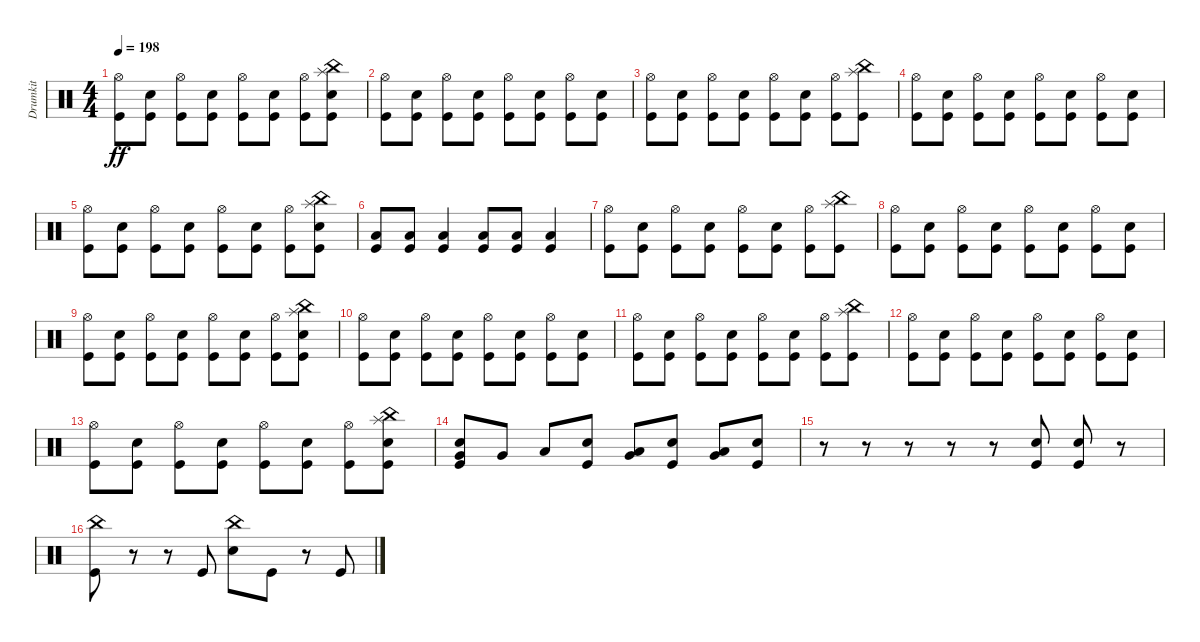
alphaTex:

\track ("Drumkit" "Drumkit") {instrument percussion}
\staff {score}
\articulation defaults
\ts (4 4)
\tempo 198
\clef neutral
\ks c
("Hi-Hat (open)" "Kick (hit)").8{dy ff} ("Snare (hit) 2" "Kick (hit)").8 ("Hi-Hat (open)" "Kick (hit)").8 ("Snare (hit) 2" "Kick (hit)").8 ("Hi-Hat (open)" "Kick (hit)").8 ("Snare (hit) 2" "Kick (hit)").8 ("Hi-Hat (open)" "Kick (hit)").8 ("Snare (hit) 2" "Kick (hit)" "China (hit)" "Splash (hit)").8 |
("Hi-Hat (open)" "Kick (hit)").8 ("Snare (hit) 2" "Kick (hit)").8 ("Hi-Hat (open)" "Kick (hit)").8 ("Snare (hit) 2" "Kick (hit)").8 ("Hi-Hat (open)" "Kick (hit)").8 ("Snare (hit) 2" "Kick (hit)").8 ("Hi-Hat (open)" "Kick (hit)").8 ("Snare (hit) 2" "Kick (hit)").8 |
("Hi-Hat (open)" "Kick (hit)").8 ("Snare (hit) 2" "Kick (hit)").8 ("Hi-Hat (open)" "Kick (hit)").8 ("Snare (hit) 2" "Kick (hit)").8 ("Hi-Hat (open)" "Kick (hit)").8 ("Snare (hit) 2" "Kick (hit)").8 ("Hi-Hat (open)" "Kick (hit)").8 ("Kick (hit)" "China (hit)" "Splash (hit)").8 |
("Hi-Hat (open)" "Kick (hit)").8 ("Snare (hit) 2" "Kick (hit)").8 ("Hi-Hat (open)" "Kick (hit)").8 ("Snare (hit) 2" "Kick (hit)").8 ("Hi-Hat (open)" "Kick (hit)").8 ("Snare (hit) 2" "Kick (hit)").8 ("Hi-Hat (open)" "Kick (hit)").8 ("Snare (hit) 2" "Kick (hit)").8 |
("Hi-Hat (open)" "Kick (hit)").8 ("Snare (hit) 2" "Kick (hit)").8 ("Hi-Hat (open)" "Kick (hit)").8 ("Snare (hit) 2" "Kick (hit)").8 ("Hi-Hat (open)" "Kick (hit)").8 ("Snare (hit) 2" "Kick (hit)").8 ("Hi-Hat (open)" "Kick (hit)").8 ("Snare (hit) 2" "Kick (hit)" "China (hit)" "Splash (hit)").8 |
("Low Floor Tom (hit)" "Kick (hit)").8 ("Low Floor Tom (hit)" "Kick (hit)").8 ("Kick (hit)" "Low Floor Tom (hit)").4 ("Low Floor Tom (hit)" "Kick (hit)").8 ("Kick (hit)" "Low Floor Tom (hit)").8 ("Low Floor Tom (hit)" "Kick (hit)").4 |
("Hi-Hat (open)" "Kick (hit)").8 ("Snare (hit) 2" "Kick (hit)").8 ("Hi-Hat (open)" "Kick (hit)").8 ("Snare (hit) 2" "Kick (hit)").8 ("Hi-Hat (open)" "Kick (hit)").8 ("Snare (hit) 2" "Kick (hit)").8 ("Hi-Hat (open)" "Kick (hit)").8 ("Kick (hit)" "China (hit)" "Splash (hit)").8 |
("Hi-Hat (open)" "Kick (hit)").8 ("Snare (hit) 2" "Kick (hit)").8 ("Hi-Hat (open)" "Kick (hit)").8 ("Snare (hit) 2" "Kick (hit)").8 ("Hi-Hat (open)" "Kick (hit)").8 ("Snare (hit) 2" "Kick (hit)").8 ("Hi-Hat (open)" "Kick (hit)").8 ("Snare (hit) 2" "Kick (hit)").8 |
("Hi-Hat (open)" "Kick (hit)").8 ("Snare (hit) 2" "Kick (hit)").8 ("Hi-Hat (open)" "Kick (hit)").8 ("Snare (hit) 2" "Kick (hit)").8 ("Hi-Hat (open)" "Kick (hit)").8 ("Snare (hit) 2" "Kick (hit)").8 ("Hi-Hat (open)" "Kick (hit)").8 ("Snare (hit) 2" "Kick (hit)" "China (hit)" "Splash (hit)").8 |
("Hi-Hat (open)" "Kick (hit)").8 ("Snare (hit) 2" "Kick (hit)").8 ("Hi-Hat (open)" "Kick (hit)").8 ("Snare (hit) 2" "Kick (hit)").8 ("Hi-Hat (open)" "Kick (hit)").8 ("Snare (hit) 2" "Kick (hit)").8 ("Hi-Hat (open)" "Kick (hit)").8 ("Snare (hit) 2" "Kick (hit)").8 |
("Hi-Hat (open)" "Kick (hit)").8 ("Snare (hit) 2" "Kick (hit)").8 ("Hi-Hat (open)" "Kick (hit)").8 ("Snare (hit) 2" "Kick (hit)").8 ("Hi-Hat (open)" "Kick (hit)").8 ("Snare (hit) 2" "Kick (hit)").8 ("Hi-Hat (open)" "Kick (hit)").8 ("Kick (hit)" "China (hit)" "Splash (hit)").8 |
("Hi-Hat (open)" "Kick (hit)").8 ("Snare (hit) 2" "Kick (hit)").8 ("Hi-Hat (open)" "Kick (hit)").8 ("Snare (hit) 2" "Kick (hit)").8 ("Hi-Hat (open)" "Kick (hit)").8 ("Snare (hit) 2" "Kick (hit)").8 ("Hi-Hat (open)" "Kick (hit)").8 ("Snare (hit) 2" "Kick (hit)").8 |
("Hi-Hat (open)" "Kick (hit)").8 ("Snare (hit) 2" "Kick (hit)").8 ("Hi-Hat (open)" "Kick (hit)").8 ("Snare (hit) 2" "Kick (hit)").8 ("Hi-Hat (open)" "Kick (hit)").8 ("Snare (hit) 2" "Kick (hit)").8 ("Hi-Hat (open)" "Kick (hit)").8 ("Snare (hit) 2" "Kick (hit)" "China (hit)" "Splash (hit)").8 |
("Snare (hit) 2" "Kick (hit)" "Very Low Tom (hit)").8 "Very Low Tom (hit)".8 "Low Floor Tom (hit)".8 ("Snare (hit) 2" "Kick (hit)").8 ("Low Floor Tom (hit)" "Very Low Tom (hit)").8 ("Snare (hit) 2" "Kick (hit)").8 ("Low Floor Tom (hit)" "Very Low Tom (hit)").8 ("Snare (hit) 2" "Kick (hit)").8 |
r.8 r.8 r.8 r.8 r.8 ("Kick (hit)" "Snare (hit) 2").8 ("Kick (hit)" "Snare (hit) 2").8 r.8 |
("Kick (hit)" "China (hit)").8 r.8 r.8 "Kick (hit)".8 ("China (hit)" "Snare (hit) 2").8 "Kick (hit)".8 r.8 "Kick (hit)".8
